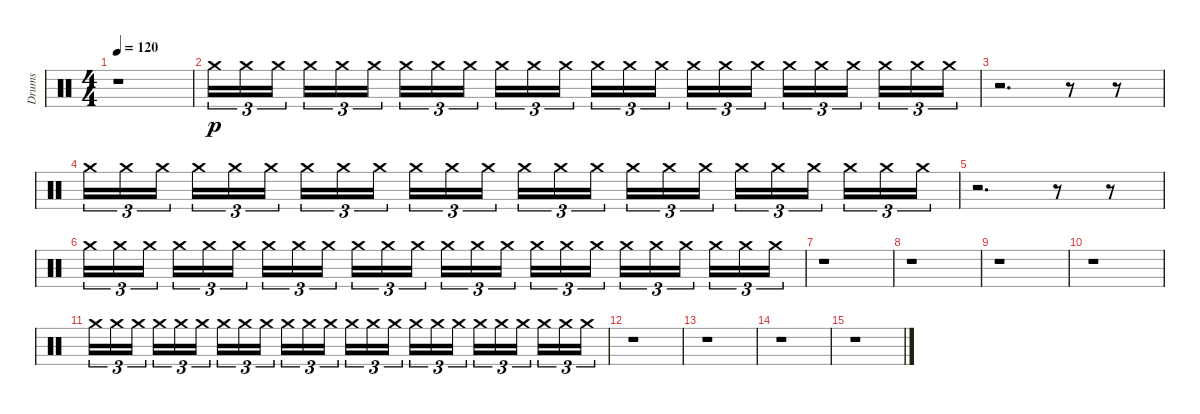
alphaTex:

\track ("Drums" "Drums") {instrument percussion}
\staff {score}
\articulation defaults
\ts (4 4)
\tempo 120
\clef neutral
\ks c
r.1{dy p volume 0} |
"Crash medium (hit)".16{tu (3 2) volume 16} "Crash medium (hit)".16{tu (3 2)} "Crash medium (hit)".16{tu (3 2)} "Crash medium (hit)".16{tu (3 2)} "Crash medium (hit)".16{tu (3 2)} "Crash medium (hit)".16{tu (3 2)} "Crash medium (hit)".16{tu (3 2)} "Crash medium (hit)".16{tu (3 2)} "Crash medium (hit)".16{tu (3 2)} "Crash medium (hit)".16{tu (3 2)} "Crash medium (hit)".16{tu (3 2)} "Crash medium (hit)".16{tu (3 2)} "Crash medium (hit)".16{tu (3 2)} "Crash medium (hit)".16{tu (3 2)} "Crash medium (hit)".16{tu (3 2)} "Crash medium (hit)".16{tu (3 2)} "Crash medium (hit)".16{tu (3 2)} "Crash medium (hit)".16{tu (3 2)} "Crash medium (hit)".16{tu (3 2)} "Crash medium (hit)".16{tu (3 2)} "Crash medium (hit)".16{tu (3 2)} "Crash medium (hit)".16{tu (3 2)} "Crash medium (hit)".16{tu (3 2)} "Crash medium (hit)".16{tu (3 2)} |
r.2{d} r.8 r.8{volume 3} |
"Crash medium (hit)".16{tu (3 2) volume 16} "Crash medium (hit)".16{tu (3 2)} "Crash medium (hit)".16{tu (3 2)} "Crash medium (hit)".16{tu (3 2)} "Crash medium (hit)".16{tu (3 2)} "Crash medium (hit)".16{tu (3 2)} "Crash medium (hit)".16{tu (3 2)} "Crash medium (hit)".16{tu (3 2)} "Crash medium (hit)".16{tu (3 2)} "Crash medium (hit)".16{tu (3 2)} "Crash medium (hit)".16{tu (3 2)} "Crash medium (hit)".16{tu (3 2)} "Crash medium (hit)".16{tu (3 2)} "Crash medium (hit)".16{tu (3 2)} "Crash medium (hit)".16{tu (3 2)} "Crash medium (hit)".16{tu (3 2)} "Crash medium (hit)".16{tu (3 2)} "Crash medium (hit)".16{tu (3 2)} "Crash medium (hit)".16{tu (3 2)} "Crash medium (hit)".16{tu (3 2)} "Crash medium (hit)".16{tu (3 2)} "Crash medium (hit)".16{tu (3 2)} "Crash medium (hit)".16{tu (3 2)} "Crash medium (hit)".16{tu (3 2)} |
r.2{d} r.8 r.8{volume 3} |
"Crash medium (hit)".16{tu (3 2) volume 16} "Crash medium (hit)".16{tu (3 2)} "Crash medium (hit)".16{tu (3 2)} "Crash medium (hit)".16{tu (3 2)} "Crash medium (hit)".16{tu (3 2)} "Crash medium (hit)".16{tu (3 2)} "Crash medium (hit)".16{tu (3 2)} "Crash medium (hit)".16{tu (3 2)} "Crash medium (hit)".16{tu (3 2)} "Crash medium (hit)".16{tu (3 2)} "Crash medium (hit)".16{tu (3 2)} "Crash medium (hit)".16{tu (3 2)} "Crash medium (hit)".16{tu (3 2)} "Crash medium (hit)".16{tu (3 2)} "Crash medium (hit)".16{tu (3 2)} "Crash medium (hit)".16{tu (3 2)} "Crash medium (hit)".16{tu (3 2)} "Crash medium (hit)".16{tu (3 2)} "Crash medium (hit)".16{tu (3 2)} "Crash medium (hit)".16{tu (3 2)} "Crash medium (hit)".16{tu (3 2)} "Crash medium (hit)".16{tu (3 2)} "Crash medium (hit)".16{tu (3 2)} "Crash medium (hit)".16{tu (3 2)} |
r.1 |
r.1 |
r.1 |
r.1{volume 0} |
"Crash medium (hit)".16{tu (3 2) volume 16} "Crash medium (hit)".16{tu (3 2)} "Crash medium (hit)".16{tu (3 2)} "Crash medium (hit)".16{tu (3 2)} "Crash medium (hit)".16{tu (3 2)} "Crash medium (hit)".16{tu (3 2)} "Crash medium (hit)".16{tu (3 2)} "Crash medium (hit)".16{tu (3 2)} "Crash medium (hit)".16{tu (3 2)} "Crash medium (hit)".16{tu (3 2)} "Crash medium (hit)".16{tu (3 2)} "Crash medium (hit)".16{tu (3 2)} "Crash medium (hit)".16{tu (3 2)} "Crash medium (hit)".16{tu (3 2)} "Crash medium (hit)".16{tu (3 2)} "Crash medium (hit)".16{tu (3 2)} "Crash medium (hit)".16{tu (3 2)} "Crash medium (hit)".16{tu (3 2)} "Crash medium (hit)".16{tu (3 2)} "Crash medium (hit)".16{tu (3 2)} "Crash medium (hit)".16{tu (3 2)} "Crash medium (hit)".16{tu (3 2)} "Crash medium (hit)".16{tu (3 2)} "Crash medium (hit)".16{tu (3 2)} |
r.1 |
r.1 |
r.1 |
r.1
